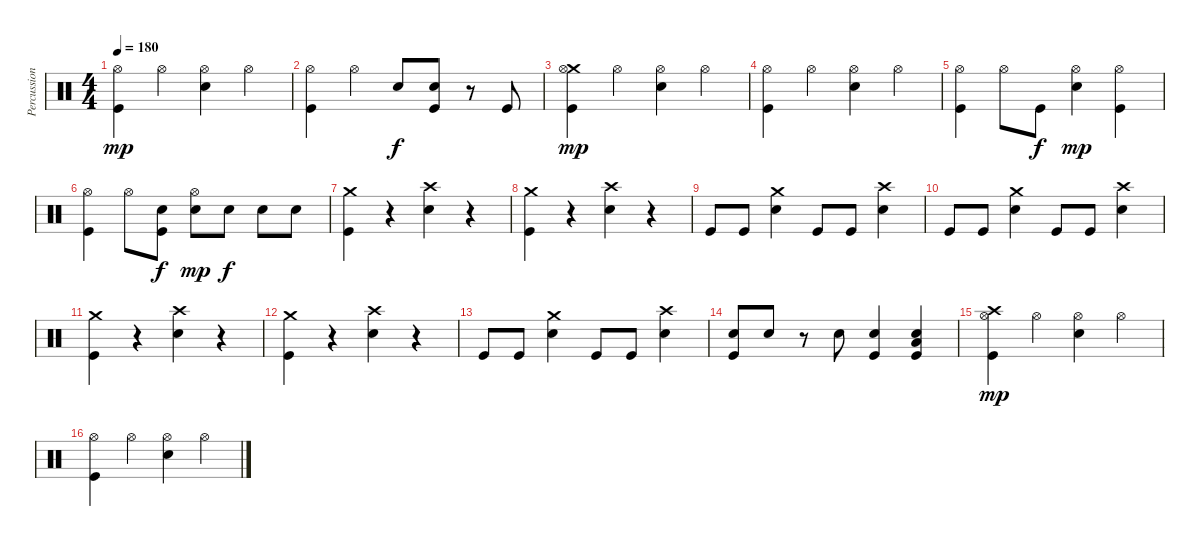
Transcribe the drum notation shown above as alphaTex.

\track ("Percussion" "Percussion") {instrument percussion}
\staff {score}
\articulation defaults
\ts (4 4)
\tempo 180
\clef neutral
\ks c
("Hi-Hat (open)" "Kick (hit)").4{dy mp} "Hi-Hat (open)".4 ("Hi-Hat (open)" "Snare (hit) 2").4 "Hi-Hat (open)".4 |
("Hi-Hat (open)" "Kick (hit)").4 "Hi-Hat (open)".4 "Snare (hit) 2".8{dy f} ("Snare (hit) 2" "Kick (hit)").8 r.8 "Kick (hit)".8 |
("Crash medium (hit)" "Hi-Hat (open)" "Kick (hit)").4{dy mp} "Hi-Hat (open)".4 ("Hi-Hat (open)" "Snare (hit) 2").4 "Hi-Hat (open)".4 |
("Hi-Hat (open)" "Kick (hit)").4 "Hi-Hat (open)".4 ("Hi-Hat (open)" "Snare (hit) 2").4 "Hi-Hat (open)".4 |
("Hi-Hat (open)" "Kick (hit)").4 "Hi-Hat (open)".8 "Kick (hit)".8{dy f} ("Hi-Hat (open)" "Snare (hit) 2").4{dy mp} ("Hi-Hat (open)" "Kick (hit)").4 |
("Hi-Hat (open)" "Kick (hit)").4 "Hi-Hat (open)".8 ("Snare (hit) 2" "Kick (hit)").8{dy f} ("Hi-Hat (open)" "Snare (hit) 2").8{dy mp} "Snare (hit) 2".8{dy f} "Snare (hit) 2".8 "Snare (hit) 2".8 |
("Crash medium (hit)" "Kick (hit)").4 r.4 ("Crash high (hit)" "Snare (hit) 2").4 r.4 |
("Crash medium (hit)" "Kick (hit)").4 r.4 ("Crash high (hit)" "Snare (hit) 2").4 r.4 |
"Kick (hit)".8 "Kick (hit)".8 ("Crash medium (hit)" "Snare (hit) 2").4 "Kick (hit)".8 "Kick (hit)".8 ("Crash high (hit)" "Snare (hit) 2").4 |
"Kick (hit)".8 "Kick (hit)".8 ("Crash medium (hit)" "Snare (hit) 2").4 "Kick (hit)".8 "Kick (hit)".8 ("Crash high (hit)" "Snare (hit) 2").4 |
("Crash medium (hit)" "Kick (hit)").4 r.4 ("Crash high (hit)" "Snare (hit) 2").4 r.4 |
("Crash medium (hit)" "Kick (hit)").4 r.4 ("Crash high (hit)" "Snare (hit) 2").4 r.4 |
"Kick (hit)".8 "Kick (hit)".8 ("Crash medium (hit)" "Snare (hit) 2").4 "Kick (hit)".8 "Kick (hit)".8 ("Crash high (hit)" "Snare (hit) 2").4 |
("Snare (hit) 2" "Kick (hit)").8 "Snare (hit) 2".8 r.8 "Snare (hit) 2".8 ("Snare (hit) 2" "Kick (hit)").4 ("Low Floor Tom (hit)" "Snare (hit) 2" "Kick (hit)").4 |
("Crash high (hit)" "Hi-Hat (open)" "Kick (hit)").4{dy mp} "Hi-Hat (open)".4 ("Hi-Hat (open)" "Snare (hit) 2").4 "Hi-Hat (open)".4 |
("Hi-Hat (open)" "Kick (hit)").4 "Hi-Hat (open)".4 ("Hi-Hat (open)" "Snare (hit) 2").4 "Hi-Hat (open)".4
